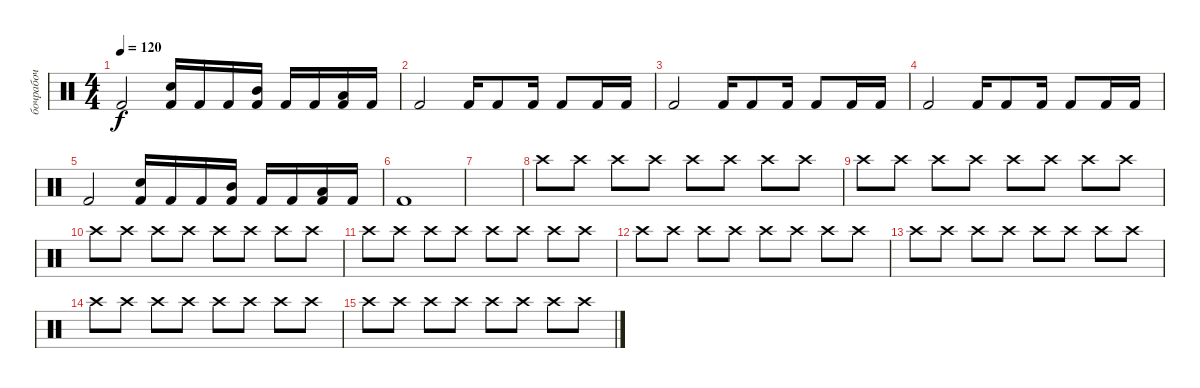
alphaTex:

\track ("бочрабоч" "бочрабоч") {instrument percussion}
\staff {score}
\articulation defaults
\ts (4 4)
\tempo 120
\clef neutral
\ks c "Kick (hit) 2".2{dy f}
("Snare (hit) 2" "Kick (hit) 2").16 "Kick (hit) 2".16 "Kick (hit) 2".16 ("Mid Tom (hit)" "Kick (hit) 2").16 "Kick (hit) 2".16 "Kick (hit) 2".16 ("Low Floor Tom (hit)" "Kick (hit) 2").16 "Kick (hit) 2".16 |
"Kick (hit) 2".2 "Kick (hit) 2".16 "Kick (hit) 2".8 "Kick (hit) 2".16 "Kick (hit) 2".8 "Kick (hit) 2".16 "Kick (hit) 2".16 |
"Kick (hit) 2".2 "Kick (hit) 2".16 "Kick (hit) 2".8 "Kick (hit) 2".16 "Kick (hit) 2".8 "Kick (hit) 2".16 "Kick (hit) 2".16 |
"Kick (hit) 2".2 "Kick (hit) 2".16 "Kick (hit) 2".8 "Kick (hit) 2".16 "Kick (hit) 2".8 "Kick (hit) 2".16 "Kick (hit) 2".16 |
"Kick (hit) 2".2 ("Snare (hit) 2" "Kick (hit) 2").16 "Kick (hit) 2".16 "Kick (hit) 2".16 ("Mid Tom (hit)" "Kick (hit) 2").16 "Kick (hit) 2".16 "Kick (hit) 2".16 ("Low Floor Tom (hit)" "Kick (hit) 2").16 "Kick (hit) 2".16 |
"Kick (hit) 2".1 |
|
"Crash high (hit)".8 "Crash high (hit)".8 "Crash high (hit)".8 "Crash high (hit)".8 "Crash high (hit)".8 "Crash high (hit)".8 "Crash high (hit)".8 "Crash high (hit)".8 |
"Crash high (hit)".8 "Crash high (hit)".8 "Crash high (hit)".8 "Crash high (hit)".8 "Crash high (hit)".8 "Crash high (hit)".8 "Crash high (hit)".8 "Crash high (hit)".8 |
"Crash high (hit)".8 "Crash high (hit)".8 "Crash high (hit)".8 "Crash high (hit)".8 "Crash high (hit)".8 "Crash high (hit)".8 "Crash high (hit)".8 "Crash high (hit)".8 |
"Crash high (hit)".8 "Crash high (hit)".8 "Crash high (hit)".8 "Crash high (hit)".8 "Crash high (hit)".8 "Crash high (hit)".8 "Crash high (hit)".8 "Crash high (hit)".8 |
"Crash high (hit)".8 "Crash high (hit)".8 "Crash high (hit)".8 "Crash high (hit)".8 "Crash high (hit)".8 "Crash high (hit)".8 "Crash high (hit)".8 "Crash high (hit)".8 |
"Crash high (hit)".8 "Crash high (hit)".8 "Crash high (hit)".8 "Crash high (hit)".8 "Crash high (hit)".8 "Crash high (hit)".8 "Crash high (hit)".8 "Crash high (hit)".8 |
"Crash high (hit)".8 "Crash high (hit)".8 "Crash high (hit)".8 "Crash high (hit)".8 "Crash high (hit)".8 "Crash high (hit)".8 "Crash high (hit)".8 "Crash high (hit)".8 |
"Crash high (hit)".8 "Crash high (hit)".8 "Crash high (hit)".8 "Crash high (hit)".8 "Crash high (hit)".8 "Crash high (hit)".8 "Crash high (hit)".8 "Crash high (hit)".8
